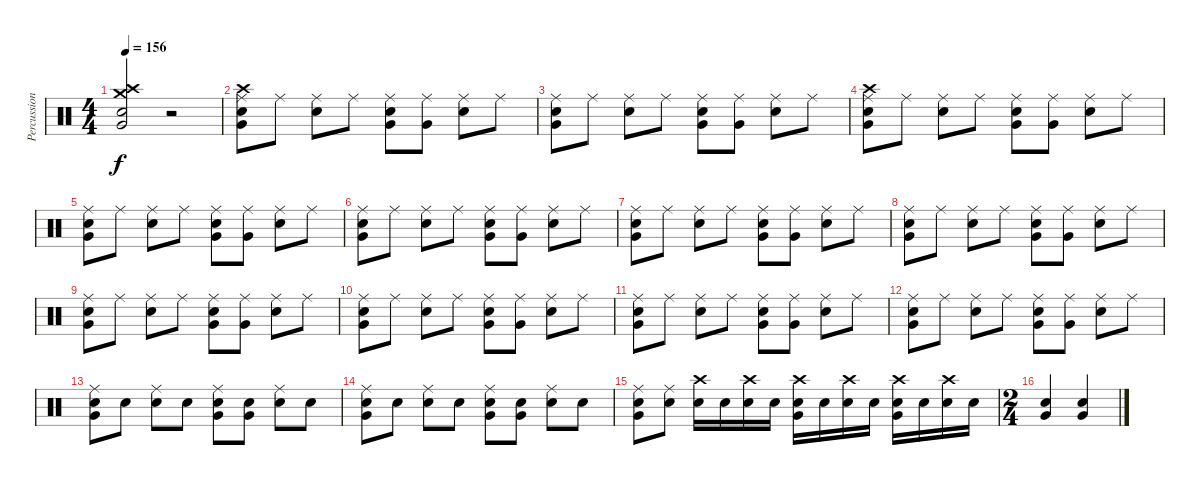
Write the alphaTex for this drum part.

\track ("Percussions" "Percussion") {instrument percussion}
\staff {score}
\articulation defaults
\ts (4 4)
\tempo 156
\clef neutral
\ks c
("Very Low Tom (hit)" "Crash high (hit)" "Crash medium (hit)" "Electric Snare (hit)").2{dy f} r.2 |
("Very Low Tom (hit)" "Crash high (hit)" "Electric Snare (hit)" "Ride (middle)").8 "Ride (middle)".8 ("Electric Snare (hit)" "Ride (middle)").8 "Ride (middle)".8 ("Very Low Tom (hit)" "Electric Snare (hit)" "Ride (middle)").8 ("Very Low Tom (hit)" "Ride (middle)").8 ("Electric Snare (hit)" "Ride (middle)").8 "Ride (middle)".8 |
("Very Low Tom (hit)" "Electric Snare (hit)" "Ride (middle)").8 "Ride (middle)".8 ("Electric Snare (hit)" "Ride (middle)").8 "Ride (middle)".8 ("Very Low Tom (hit)" "Electric Snare (hit)" "Ride (middle)").8 ("Very Low Tom (hit)" "Ride (middle)").8 ("Electric Snare (hit)" "Ride (middle)").8 "Ride (middle)".8 |
("Very Low Tom (hit)" "Crash high (hit)" "Electric Snare (hit)" "Ride (middle)").8 "Ride (middle)".8 ("Electric Snare (hit)" "Ride (middle)").8 "Ride (middle)".8 ("Very Low Tom (hit)" "Electric Snare (hit)" "Ride (middle)").8 ("Very Low Tom (hit)" "Ride (middle)").8 ("Electric Snare (hit)" "Ride (middle)").8 "Ride (middle)".8 |
("Very Low Tom (hit)" "Electric Snare (hit)" "Ride (middle)").8 "Ride (middle)".8 ("Electric Snare (hit)" "Ride (middle)").8 "Ride (middle)".8 ("Very Low Tom (hit)" "Electric Snare (hit)" "Ride (middle)").8 ("Very Low Tom (hit)" "Ride (middle)").8 ("Electric Snare (hit)" "Ride (middle)").8 "Ride (middle)".8 |
("Very Low Tom (hit)" "Electric Snare (hit)" "Ride (middle)").8 "Ride (middle)".8 ("Electric Snare (hit)" "Ride (middle)").8 "Ride (middle)".8 ("Very Low Tom (hit)" "Electric Snare (hit)" "Ride (middle)").8 ("Very Low Tom (hit)" "Ride (middle)").8 ("Electric Snare (hit)" "Ride (middle)").8 "Ride (middle)".8 |
("Very Low Tom (hit)" "Electric Snare (hit)" "Ride (middle)").8 "Ride (middle)".8 ("Electric Snare (hit)" "Ride (middle)").8 "Ride (middle)".8 ("Very Low Tom (hit)" "Electric Snare (hit)" "Ride (middle)").8 ("Very Low Tom (hit)" "Ride (middle)").8 ("Electric Snare (hit)" "Ride (middle)").8 "Ride (middle)".8 |
("Very Low Tom (hit)" "Electric Snare (hit)" "Ride (middle)").8 "Ride (middle)".8 ("Electric Snare (hit)" "Ride (middle)").8 "Ride (middle)".8 ("Very Low Tom (hit)" "Electric Snare (hit)" "Ride (middle)").8 ("Very Low Tom (hit)" "Ride (middle)").8 ("Electric Snare (hit)" "Ride (middle)").8 "Ride (middle)".8 |
("Very Low Tom (hit)" "Electric Snare (hit)" "Ride (middle)").8 "Ride (middle)".8 ("Electric Snare (hit)" "Ride (middle)").8 "Ride (middle)".8 ("Very Low Tom (hit)" "Electric Snare (hit)" "Ride (middle)").8 ("Very Low Tom (hit)" "Ride (middle)").8 ("Electric Snare (hit)" "Ride (middle)").8 "Ride (middle)".8 |
("Very Low Tom (hit)" "Electric Snare (hit)" "Ride (middle)").8 "Ride (middle)".8 ("Electric Snare (hit)" "Ride (middle)").8 "Ride (middle)".8 ("Very Low Tom (hit)" "Electric Snare (hit)" "Ride (middle)").8 ("Very Low Tom (hit)" "Ride (middle)").8 ("Electric Snare (hit)" "Ride (middle)").8 "Ride (middle)".8 |
("Very Low Tom (hit)" "Electric Snare (hit)" "Ride (middle)").8 "Ride (middle)".8 ("Electric Snare (hit)" "Ride (middle)").8 "Ride (middle)".8 ("Very Low Tom (hit)" "Electric Snare (hit)" "Ride (middle)").8 ("Very Low Tom (hit)" "Ride (middle)").8 ("Electric Snare (hit)" "Ride (middle)").8 "Ride (middle)".8 |
("Very Low Tom (hit)" "Electric Snare (hit)" "Ride (middle)").8 "Ride (middle)".8 ("Electric Snare (hit)" "Ride (middle)").8 "Ride (middle)".8 ("Very Low Tom (hit)" "Electric Snare (hit)" "Ride (middle)").8 ("Very Low Tom (hit)" "Ride (middle)").8 ("Electric Snare (hit)" "Ride (middle)").8 "Ride (middle)".8 |
("Very Low Tom (hit)" "Electric Snare (hit)" "Ride (middle)").8 "Electric Snare (hit)".8 ("Electric Snare (hit)" "Ride (middle)").8 "Electric Snare (hit)".8 ("Very Low Tom (hit)" "Electric Snare (hit)" "Ride (middle)").8 ("Very Low Tom (hit)" "Electric Snare (hit)").8 ("Electric Snare (hit)" "Ride (middle)").8 "Electric Snare (hit)".8 |
("Very Low Tom (hit)" "Electric Snare (hit)" "Ride (middle)").8 "Electric Snare (hit)".8 ("Electric Snare (hit)" "Ride (middle)").8 "Electric Snare (hit)".8 ("Very Low Tom (hit)" "Electric Snare (hit)" "Ride (middle)").8 ("Very Low Tom (hit)" "Electric Snare (hit)").8 ("Electric Snare (hit)" "Ride (middle)").8 "Electric Snare (hit)".8 |
("Very Low Tom (hit)" "Electric Snare (hit)" "Ride (middle)").8 ("Electric Snare (hit)" "Ride (middle)").8 ("Electric Snare (hit)" "Crash high (hit)").16 "Electric Snare (hit)".16 ("Electric Snare (hit)" "Crash high (hit)").16 "Electric Snare (hit)".16 ("Very Low Tom (hit)" "Electric Snare (hit)" "Crash high (hit)").16 "Electric Snare (hit)".16 ("Electric Snare (hit)" "Crash high (hit)").16 "Electric Snare (hit)".16 ("Very Low Tom (hit)" "Electric Snare (hit)" "Crash high (hit)").16 "Electric Snare (hit)".16 ("Electric Snare (hit)" "Crash high (hit)").16 "Electric Snare (hit)".16 |
\ts (2 4)
("Very Low Tom (hit)" "Electric Snare (hit)").4 ("Very Low Tom (hit)" "Electric Snare (hit)").4
